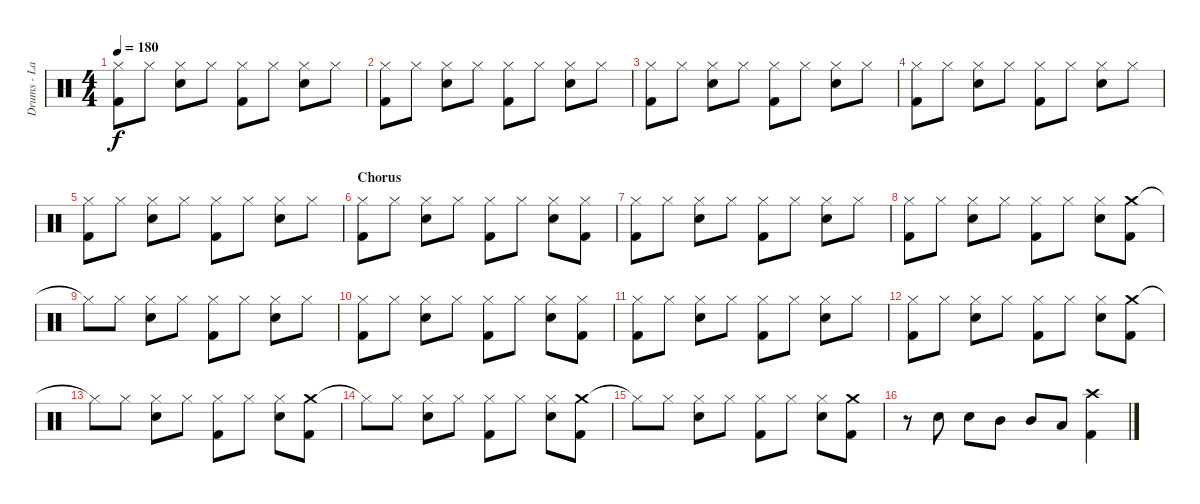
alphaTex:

\track ("Drums - Lars" "Drums - La") {instrument percussion}
\staff {score}
\articulation defaults
\ts (4 4)
\tempo 180
\clef neutral
\ks c
("Hi-Hat (closed)" "Kick (hit) 2").8{dy f} "Hi-Hat (closed)".8 ("Hi-Hat (closed)" "Snare (hit) 2").8 "Hi-Hat (closed)".8 ("Hi-Hat (closed)" "Kick (hit) 2").8 "Hi-Hat (closed)".8 ("Hi-Hat (closed)" "Snare (hit) 2").8 "Hi-Hat (closed)".8 |
("Hi-Hat (closed)" "Kick (hit) 2").8 "Hi-Hat (closed)".8 ("Hi-Hat (closed)" "Snare (hit) 2").8 "Hi-Hat (closed)".8 ("Hi-Hat (closed)" "Kick (hit) 2").8 "Hi-Hat (closed)".8 ("Hi-Hat (closed)" "Snare (hit) 2").8 "Hi-Hat (closed)".8 |
("Hi-Hat (closed)" "Kick (hit) 2").8 "Hi-Hat (closed)".8 ("Hi-Hat (closed)" "Snare (hit) 2").8 "Hi-Hat (closed)".8 ("Hi-Hat (closed)" "Kick (hit) 2").8 "Hi-Hat (closed)".8 ("Hi-Hat (closed)" "Snare (hit) 2").8 "Hi-Hat (closed)".8 |
("Hi-Hat (closed)" "Kick (hit) 2").8 "Hi-Hat (closed)".8 ("Hi-Hat (closed)" "Snare (hit) 2").8 "Hi-Hat (closed)".8 ("Hi-Hat (closed)" "Kick (hit) 2").8 "Hi-Hat (closed)".8 ("Hi-Hat (closed)" "Snare (hit) 2").8 "Hi-Hat (closed)".8 |
("Hi-Hat (closed)" "Kick (hit) 2").8 "Hi-Hat (closed)".8 ("Hi-Hat (closed)" "Snare (hit) 2").8 "Hi-Hat (closed)".8 ("Hi-Hat (closed)" "Kick (hit) 2").8 "Hi-Hat (closed)".8 ("Hi-Hat (closed)" "Snare (hit) 2").8 "Hi-Hat (closed)".8 |
\section ("" "Chorus")
("Hi-Hat (closed)" "Kick (hit) 2").8 "Hi-Hat (closed)".8 ("Hi-Hat (closed)" "Snare (hit) 2").8 "Hi-Hat (closed)".8 ("Hi-Hat (closed)" "Kick (hit) 2").8 "Hi-Hat (closed)".8 ("Hi-Hat (closed)" "Snare (hit) 2").8 ("Hi-Hat (closed)" "Kick (hit) 2").8 |
("Hi-Hat (closed)" "Kick (hit) 2").8 "Hi-Hat (closed)".8 ("Hi-Hat (closed)" "Snare (hit) 2").8 "Hi-Hat (closed)".8 ("Hi-Hat (closed)" "Kick (hit) 2").8 "Hi-Hat (closed)".8 ("Hi-Hat (closed)" "Snare (hit) 2").8 "Hi-Hat (closed)".8 |
("Hi-Hat (closed)" "Kick (hit) 2").8 "Hi-Hat (closed)".8 ("Hi-Hat (closed)" "Snare (hit) 2").8 "Hi-Hat (closed)".8 ("Hi-Hat (closed)" "Kick (hit) 2").8 "Hi-Hat (closed)".8 ("Hi-Hat (closed)" "Snare (hit) 2").8 ("Crash medium (hit)" "Kick (hit) 2").8 |
"Hi-Hat (closed)"{t}.8 "Hi-Hat (closed)".8 ("Hi-Hat (closed)" "Snare (hit) 2").8 "Hi-Hat (closed)".8 ("Hi-Hat (closed)" "Kick (hit) 2").8 "Hi-Hat (closed)".8 ("Hi-Hat (closed)" "Snare (hit) 2").8 "Hi-Hat (closed)".8 |
("Hi-Hat (closed)" "Kick (hit) 2").8 "Hi-Hat (closed)".8 ("Hi-Hat (closed)" "Snare (hit) 2").8 "Hi-Hat (closed)".8 ("Hi-Hat (closed)" "Kick (hit) 2").8 "Hi-Hat (closed)".8 ("Hi-Hat (closed)" "Snare (hit) 2").8 ("Hi-Hat (closed)" "Kick (hit) 2").8 |
("Hi-Hat (closed)" "Kick (hit) 2").8 "Hi-Hat (closed)".8 ("Hi-Hat (closed)" "Snare (hit) 2").8 "Hi-Hat (closed)".8 ("Hi-Hat (closed)" "Kick (hit) 2").8 "Hi-Hat (closed)".8 ("Hi-Hat (closed)" "Snare (hit) 2").8 "Hi-Hat (closed)".8 |
("Hi-Hat (closed)" "Kick (hit) 2").8 "Hi-Hat (closed)".8 ("Hi-Hat (closed)" "Snare (hit) 2").8 "Hi-Hat (closed)".8 ("Hi-Hat (closed)" "Kick (hit) 2").8 "Hi-Hat (closed)".8 ("Hi-Hat (closed)" "Snare (hit) 2").8 ("Crash medium (hit)" "Kick (hit) 2").8 |
"Hi-Hat (closed)"{t}.8 "Hi-Hat (closed)".8 ("Hi-Hat (closed)" "Snare (hit) 2").8 "Hi-Hat (closed)".8 ("Hi-Hat (closed)" "Kick (hit) 2").8 "Hi-Hat (closed)".8 ("Hi-Hat (closed)" "Snare (hit) 2").8 ("Crash medium (hit)" "Kick (hit) 2").8 |
"Hi-Hat (closed)"{t}.8 "Hi-Hat (closed)".8 ("Hi-Hat (closed)" "Snare (hit) 2").8 "Hi-Hat (closed)".8 ("Hi-Hat (closed)" "Kick (hit) 2").8 "Hi-Hat (closed)".8 ("Hi-Hat (closed)" "Snare (hit) 2").8 ("Crash medium (hit)" "Kick (hit) 2").8 |
"Hi-Hat (closed)"{t}.8 "Hi-Hat (closed)".8 ("Hi-Hat (closed)" "Snare (hit) 2").8 "Hi-Hat (closed)".8 ("Hi-Hat (closed)" "Kick (hit) 2").8 "Hi-Hat (closed)".8 ("Hi-Hat (closed)" "Snare (hit) 2").8 ("Crash medium (hit)" "Kick (hit) 2").8 |
r.8 "Snare (hit) 2".8 "Snare (hit) 2".8 "Mid Tom (hit)".8 "Mid Tom (hit)".8 "Low Tom (hit)".8 ("Crash high (hit)" "Kick (hit) 2").4
